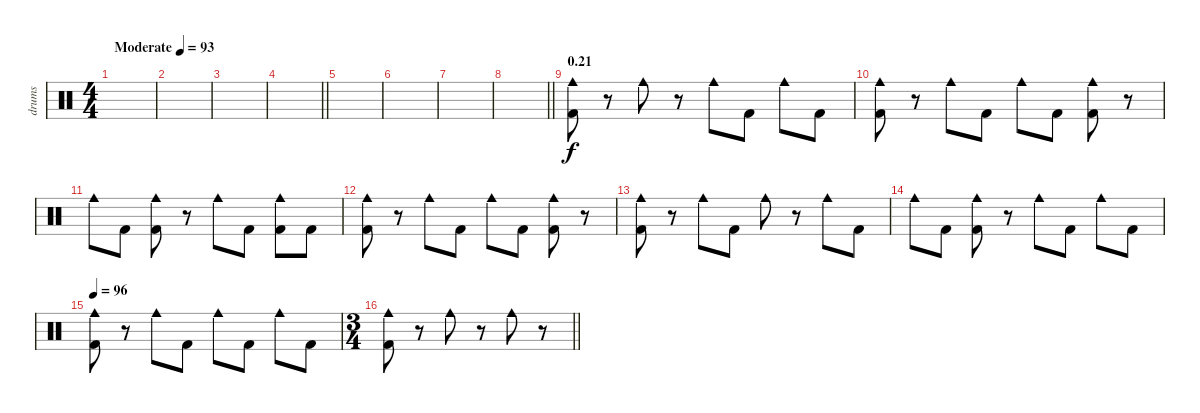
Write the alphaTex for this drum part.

\track ("drums" "drums") {instrument percussion}
\staff {score}
\articulation defaults
\ts (4 4)
\tempo (93 "Moderate")
\clef neutral
\ks c
|
|
|
\barLineRight lightlight
|
|
|
|
\barLineRight lightlight
|
\section ("" "0.21")
("Cowbell medium (hit)" "Kick (hit) 2").8 r.8 "Cowbell medium (hit)".8 r.8 "Cowbell medium (hit)".8 "Kick (hit) 2".8 "Cowbell medium (hit)".8 "Kick (hit) 2".8 |
("Cowbell medium (hit)" "Kick (hit) 2").8 r.8 "Cowbell medium (hit)".8 "Kick (hit) 2".8 "Cowbell medium (hit)".8 "Kick (hit) 2".8 ("Cowbell medium (hit)" "Kick (hit) 2").8 r.8 |
"Cowbell medium (hit)".8 "Kick (hit) 2".8 ("Cowbell medium (hit)" "Kick (hit) 2").8 r.8 "Cowbell medium (hit)".8 "Kick (hit) 2".8 ("Cowbell medium (hit)" "Kick (hit) 2").8 "Kick (hit) 2".8 |
("Cowbell medium (hit)" "Kick (hit) 2").8 r.8 "Cowbell medium (hit)".8 "Kick (hit) 2".8 "Cowbell medium (hit)".8 "Kick (hit) 2".8 ("Cowbell medium (hit)" "Kick (hit) 2").8 r.8 |
("Cowbell medium (hit)" "Kick (hit) 2").8 r.8 "Cowbell medium (hit)".8 "Kick (hit) 2".8 "Cowbell medium (hit)".8 r.8 "Cowbell medium (hit)".8 "Kick (hit) 2".8 |
"Cowbell medium (hit)".8 "Kick (hit) 2".8 ("Cowbell medium (hit)" "Kick (hit) 2").8 r.8 "Cowbell medium (hit)".8 "Kick (hit) 2".8 "Cowbell medium (hit)".8 "Kick (hit) 2".8 |
\tempo 96
("Cowbell medium (hit)" "Kick (hit) 2").8 r.8 "Cowbell medium (hit)".8 "Kick (hit) 2".8 "Cowbell medium (hit)".8 "Kick (hit) 2".8 "Cowbell medium (hit)".8 "Kick (hit) 2".8 |
\ts (3 4)
\barLineRight lightlight
("Cowbell medium (hit)" "Kick (hit) 2").8 r.8 "Cowbell medium (hit)".8 r.8 "Cowbell medium (hit)".8 r.8
